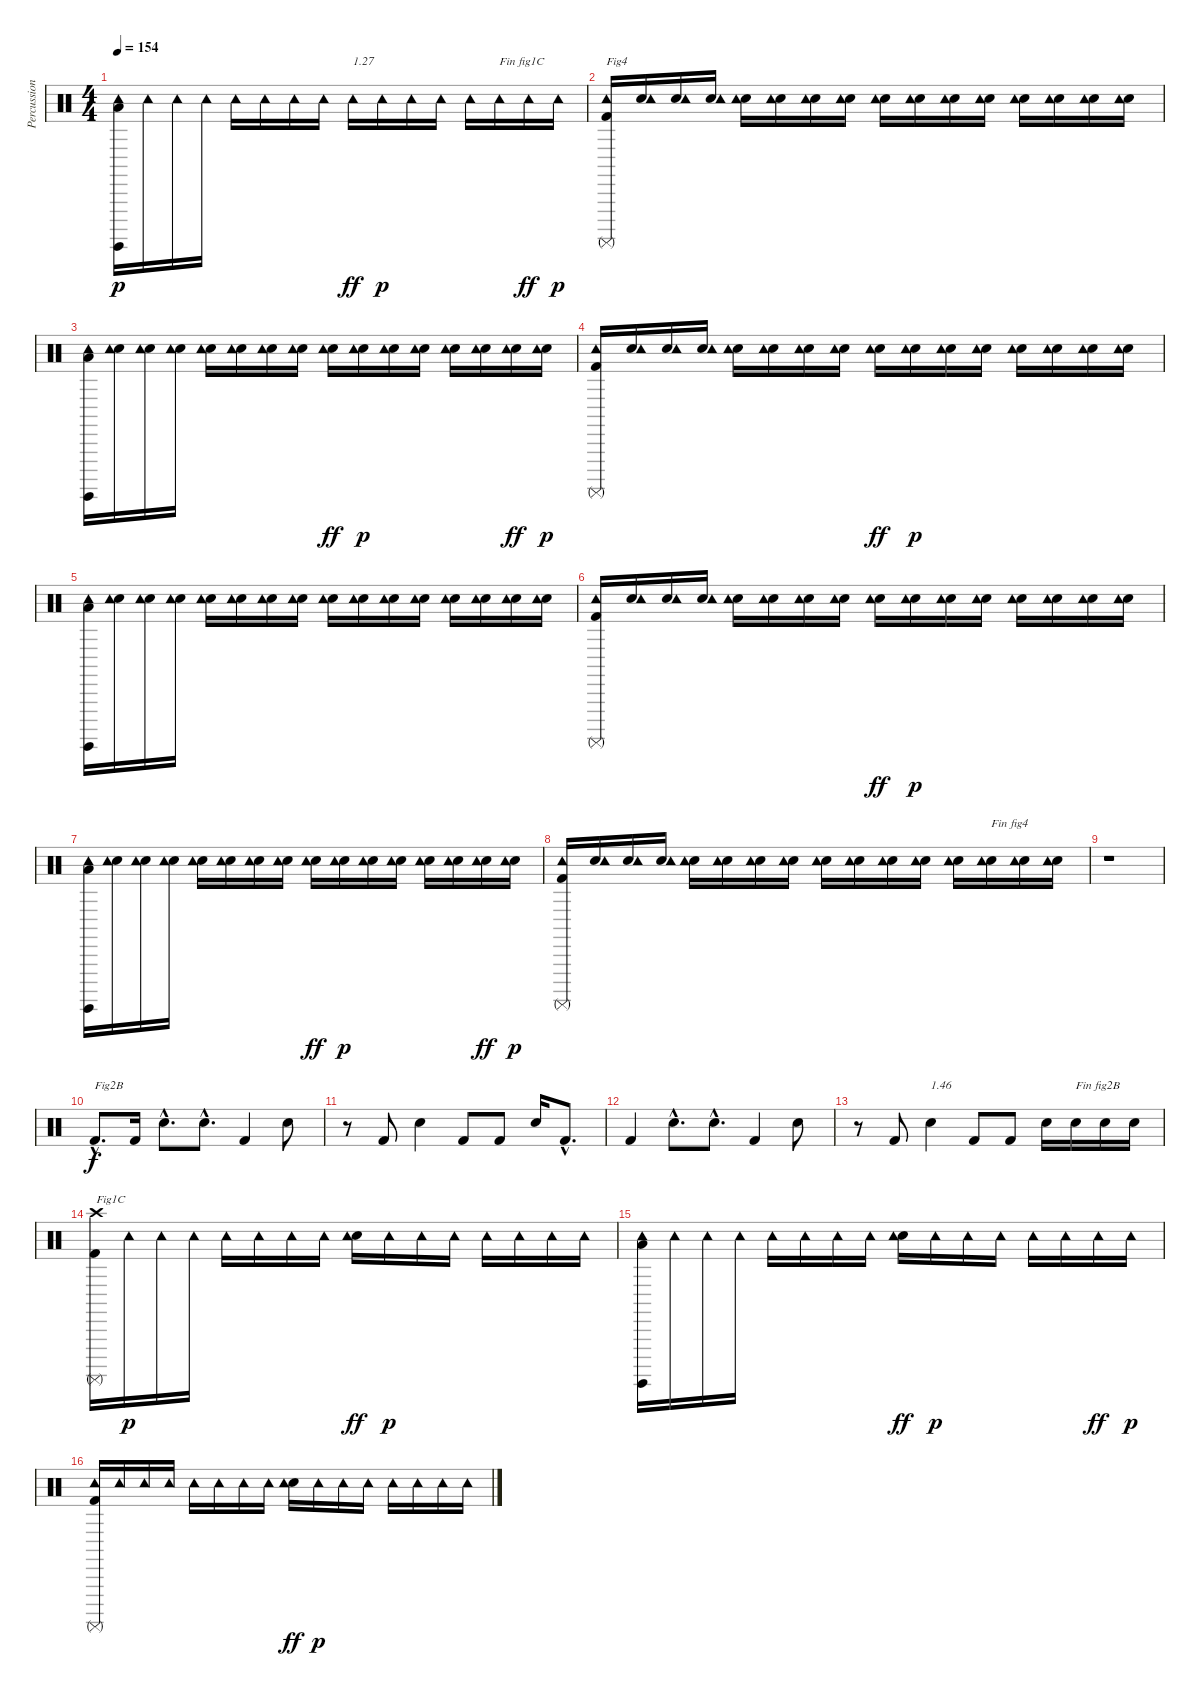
\track ("Percussions" "Percussion") {instrument percussion}
\staff {score}
\articulation defaults
\ts (4 4)
\tempo 154
\clef neutral
\ks c
("Low Tom (hit)" "Surdo (hit)" "Tambourine (hit)").16{dy p} "Tambourine (hit)".16 "Tambourine (hit)".16 "Tambourine (hit)".16 "Tambourine (hit)".16 "Tambourine (hit)".16 "Tambourine (hit)".16 "Tambourine (hit)".16 "Tambourine (hit)".16{txt "1.27" dy ff} "Tambourine (hit)".16{dy p} "Tambourine (hit)".16 "Tambourine (hit)".16 "Tambourine (hit)".16 "Tambourine (hit)".16{txt "Fin fig1C"} "Tambourine (hit)".16{dy ff} "Tambourine (hit)".16{dy p} |
("Kick (hit) 2" "Surdo (mute)" "Tambourine (hit)").16{txt "Fig4"} ("Electric Snare (hit)" "Tambourine (hit)").16 ("Electric Snare (hit)" "Tambourine (hit)").16 ("Electric Snare (hit)" "Tambourine (hit)").16 ("Electric Snare (hit)" "Tambourine (hit)").16 ("Electric Snare (hit)" "Tambourine (hit)").16 ("Electric Snare (hit)" "Tambourine (hit)").16 ("Electric Snare (hit)" "Tambourine (hit)").16 ("Electric Snare (hit)" "Tambourine (hit)").16 ("Electric Snare (hit)" "Tambourine (hit)").16 ("Electric Snare (hit)" "Tambourine (hit)").16 ("Electric Snare (hit)" "Tambourine (hit)").16 ("Electric Snare (hit)" "Tambourine (hit)").16 ("Electric Snare (hit)" "Tambourine (hit)").16 ("Electric Snare (hit)" "Tambourine (hit)").16 ("Electric Snare (hit)" "Tambourine (hit)").16 |
("Low Tom (hit)" "Surdo (hit)" "Tambourine (hit)").16 ("Electric Snare (hit)" "Tambourine (hit)").16 ("Electric Snare (hit)" "Tambourine (hit)").16 ("Electric Snare (hit)" "Tambourine (hit)").16 ("Electric Snare (hit)" "Tambourine (hit)").16 ("Electric Snare (hit)" "Tambourine (hit)").16 ("Electric Snare (hit)" "Tambourine (hit)").16 ("Electric Snare (hit)" "Tambourine (hit)").16 ("Electric Snare (hit)" "Tambourine (hit)").16{dy ff} ("Electric Snare (hit)" "Tambourine (hit)").16{dy p} ("Electric Snare (hit)" "Tambourine (hit)").16 ("Electric Snare (hit)" "Tambourine (hit)").16 ("Electric Snare (hit)" "Tambourine (hit)").16 ("Electric Snare (hit)" "Tambourine (hit)").16 ("Electric Snare (hit)" "Tambourine (hit)").16{dy ff} ("Electric Snare (hit)" "Tambourine (hit)").16{dy p} |
("Kick (hit) 2" "Surdo (mute)" "Tambourine (hit)").16 ("Electric Snare (hit)" "Tambourine (hit)").16 ("Electric Snare (hit)" "Tambourine (hit)").16 ("Electric Snare (hit)" "Tambourine (hit)").16 ("Electric Snare (hit)" "Tambourine (hit)").16 ("Electric Snare (hit)" "Tambourine (hit)").16 ("Electric Snare (hit)" "Tambourine (hit)").16 ("Electric Snare (hit)" "Tambourine (hit)").16 ("Electric Snare (hit)" "Tambourine (hit)").16{dy ff} ("Electric Snare (hit)" "Tambourine (hit)").16{dy p} ("Electric Snare (hit)" "Tambourine (hit)").16 ("Electric Snare (hit)" "Tambourine (hit)").16 ("Electric Snare (hit)" "Tambourine (hit)").16 ("Electric Snare (hit)" "Tambourine (hit)").16 ("Electric Snare (hit)" "Tambourine (hit)").16 ("Electric Snare (hit)" "Tambourine (hit)").16 |
("Low Tom (hit)" "Surdo (hit)" "Tambourine (hit)").16 ("Electric Snare (hit)" "Tambourine (hit)").16 ("Electric Snare (hit)" "Tambourine (hit)").16 ("Electric Snare (hit)" "Tambourine (hit)").16 ("Electric Snare (hit)" "Tambourine (hit)").16 ("Electric Snare (hit)" "Tambourine (hit)").16 ("Electric Snare (hit)" "Tambourine (hit)").16 ("Electric Snare (hit)" "Tambourine (hit)").16 ("Electric Snare (hit)" "Tambourine (hit)").16 ("Electric Snare (hit)" "Tambourine (hit)").16 ("Electric Snare (hit)" "Tambourine (hit)").16 ("Electric Snare (hit)" "Tambourine (hit)").16 ("Electric Snare (hit)" "Tambourine (hit)").16 ("Electric Snare (hit)" "Tambourine (hit)").16 ("Electric Snare (hit)" "Tambourine (hit)").16 ("Electric Snare (hit)" "Tambourine (hit)").16 |
("Kick (hit) 2" "Surdo (mute)" "Tambourine (hit)").16 ("Electric Snare (hit)" "Tambourine (hit)").16 ("Electric Snare (hit)" "Tambourine (hit)").16 ("Electric Snare (hit)" "Tambourine (hit)").16 ("Electric Snare (hit)" "Tambourine (hit)").16 ("Electric Snare (hit)" "Tambourine (hit)").16 ("Electric Snare (hit)" "Tambourine (hit)").16 ("Electric Snare (hit)" "Tambourine (hit)").16 ("Electric Snare (hit)" "Tambourine (hit)").16{dy ff} ("Electric Snare (hit)" "Tambourine (hit)").16{dy p} ("Electric Snare (hit)" "Tambourine (hit)").16 ("Electric Snare (hit)" "Tambourine (hit)").16 ("Electric Snare (hit)" "Tambourine (hit)").16 ("Electric Snare (hit)" "Tambourine (hit)").16 ("Electric Snare (hit)" "Tambourine (hit)").16 ("Electric Snare (hit)" "Tambourine (hit)").16 |
("Low Tom (hit)" "Surdo (hit)" "Tambourine (hit)").16 ("Electric Snare (hit)" "Tambourine (hit)").16 ("Electric Snare (hit)" "Tambourine (hit)").16 ("Electric Snare (hit)" "Tambourine (hit)").16 ("Electric Snare (hit)" "Tambourine (hit)").16 ("Electric Snare (hit)" "Tambourine (hit)").16 ("Electric Snare (hit)" "Tambourine (hit)").16 ("Electric Snare (hit)" "Tambourine (hit)").16 ("Electric Snare (hit)" "Tambourine (hit)").16{dy ff} ("Electric Snare (hit)" "Tambourine (hit)").16{dy p} ("Electric Snare (hit)" "Tambourine (hit)").16 ("Electric Snare (hit)" "Tambourine (hit)").16 ("Electric Snare (hit)" "Tambourine (hit)").16 ("Electric Snare (hit)" "Tambourine (hit)").16 ("Electric Snare (hit)" "Tambourine (hit)").16{dy ff} ("Electric Snare (hit)" "Tambourine (hit)").16{dy p} |
("Kick (hit) 2" "Surdo (mute)" "Tambourine (hit)").16 ("Electric Snare (hit)" "Tambourine (hit)").16 ("Electric Snare (hit)" "Tambourine (hit)").16 ("Electric Snare (hit)" "Tambourine (hit)").16 ("Electric Snare (hit)" "Tambourine (hit)").16 ("Electric Snare (hit)" "Tambourine (hit)").16 ("Electric Snare (hit)" "Tambourine (hit)").16 ("Electric Snare (hit)" "Tambourine (hit)").16 ("Electric Snare (hit)" "Tambourine (hit)").16 ("Electric Snare (hit)" "Tambourine (hit)").16 ("Electric Snare (hit)" "Tambourine (hit)").16 ("Electric Snare (hit)" "Tambourine (hit)").16 ("Electric Snare (hit)" "Tambourine (hit)").16 ("Electric Snare (hit)" "Tambourine (hit)").16{txt "Fin fig4"} ("Electric Snare (hit)" "Tambourine (hit)").16 ("Electric Snare (hit)" "Tambourine (hit)").16 |
r.1 |
"Kick (hit) 2"{hac}.8{d txt "Fig2B" dy f} "Kick (hit) 2".16 "Electric Snare (hit)"{hac}.8{d} "Electric Snare (hit)"{hac}.8{d} "Kick (hit) 2".4 "Electric Snare (hit)".8 |
r.8 "Kick (hit) 2".8 "Electric Snare (hit)".4 "Kick (hit) 2".8 "Kick (hit) 2".8 "Electric Snare (hit)".16 "Kick (hit) 2"{hac}.8{d} |
"Kick (hit) 2".4 "Electric Snare (hit)"{hac}.8{d} "Electric Snare (hit)"{hac}.8{d} "Kick (hit) 2".4 "Electric Snare (hit)".8 |
r.8 "Kick (hit) 2".8 "Electric Snare (hit)".4{txt "1.46"} "Kick (hit) 2".8 "Kick (hit) 2".8 "Electric Snare (hit)".16 "Electric Snare (hit)".16{txt "Fin fig2B"} "Electric Snare (hit)".16 "Electric Snare (hit)".16 |
("Kick (hit) 2" "Surdo (mute)" "Crash high (hit)").16{txt "Fig1C"} "Tambourine (hit)".16{dy p} "Tambourine (hit)".16 "Tambourine (hit)".16 "Tambourine (hit)".16 "Tambourine (hit)".16 "Tambourine (hit)".16 "Tambourine (hit)".16 ("Electric Snare (hit)" "Tambourine (hit)").16{dy ff} "Tambourine (hit)".16{dy p} "Tambourine (hit)".16 "Tambourine (hit)".16 "Tambourine (hit)".16 "Tambourine (hit)".16 "Tambourine (hit)".16 "Tambourine (hit)".16 |
("Low Tom (hit)" "Surdo (hit)" "Tambourine (hit)").16 "Tambourine (hit)".16 "Tambourine (hit)".16 "Tambourine (hit)".16 "Tambourine (hit)".16 "Tambourine (hit)".16 "Tambourine (hit)".16 "Tambourine (hit)".16 ("Electric Snare (hit)" "Tambourine (hit)").16{dy ff} "Tambourine (hit)".16{dy p} "Tambourine (hit)".16 "Tambourine (hit)".16 "Tambourine (hit)".16 "Tambourine (hit)".16 "Tambourine (hit)".16{dy ff} "Tambourine (hit)".16{dy p} |
("Kick (hit) 2" "Surdo (mute)" "Tambourine (hit)").16 "Tambourine (hit)".16 "Tambourine (hit)".16 "Tambourine (hit)".16 "Tambourine (hit)".16 "Tambourine (hit)".16 "Tambourine (hit)".16 "Tambourine (hit)".16 ("Electric Snare (hit)" "Tambourine (hit)").16{dy ff} "Tambourine (hit)".16{dy p} "Tambourine (hit)".16 "Tambourine (hit)".16 "Tambourine (hit)".16 "Tambourine (hit)".16 "Tambourine (hit)".16 "Tambourine (hit)".16
